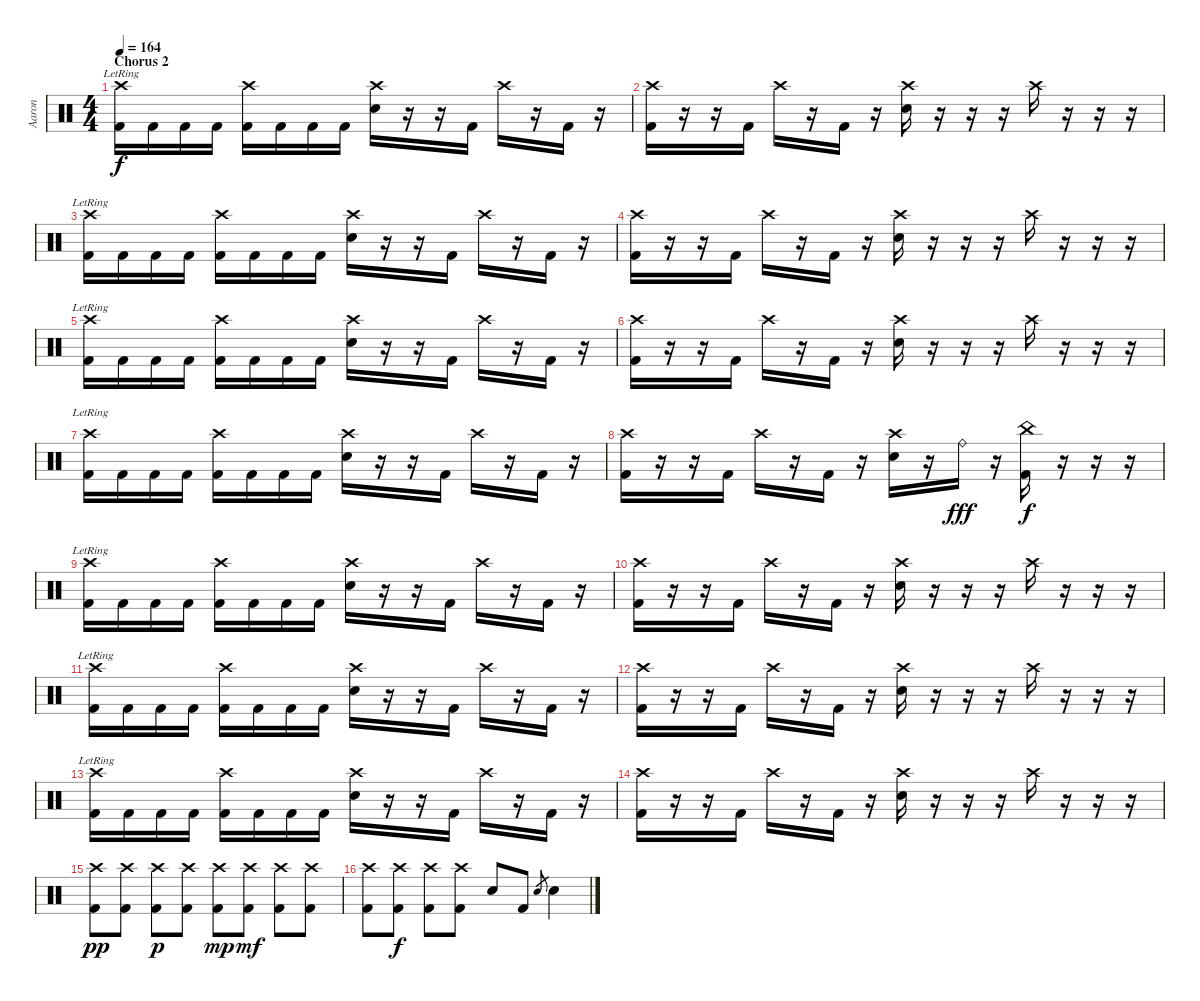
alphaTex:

\track ("Aaron" "Aaron") {instrument percussion}
\staff {score}
\articulation defaults
\ts (4 4)
\section ("" "Chorus 2")
\tempo 164
\clef neutral
\ks c
("Crash high (hit)"{lr} "Kick (hit) 2").16{dy f} "Kick (hit) 2".16 "Kick (hit) 2".16 "Kick (hit) 2".16 ("Crash high (hit)" "Kick (hit) 2").16 "Kick (hit) 2".16 "Kick (hit) 2".16 "Kick (hit) 2".16 ("Crash high (hit)" "Snare (hit) 2").16 r.16 r.16 "Kick (hit) 2".16 "Crash high (hit)".16 r.16 "Kick (hit) 2".16 r.16 |
("Crash high (hit)" "Kick (hit) 2").16 r.16 r.16 "Kick (hit) 2".16 "Crash high (hit)".16 r.16 "Kick (hit) 2".16 r.16 ("Crash high (hit)" "Snare (hit) 2").16 r.16 r.16 r.16 "Crash high (hit)".16 r.16 r.16 r.16 |
("Crash high (hit)"{lr} "Kick (hit) 2").16 "Kick (hit) 2".16 "Kick (hit) 2".16 "Kick (hit) 2".16 ("Crash high (hit)" "Kick (hit) 2").16 "Kick (hit) 2".16 "Kick (hit) 2".16 "Kick (hit) 2".16 ("Crash high (hit)" "Snare (hit) 2").16 r.16 r.16 "Kick (hit) 2".16 "Crash high (hit)".16 r.16 "Kick (hit) 2".16 r.16 |
("Crash high (hit)" "Kick (hit) 2").16 r.16 r.16 "Kick (hit) 2".16 "Crash high (hit)".16 r.16 "Kick (hit) 2".16 r.16 ("Crash high (hit)" "Snare (hit) 2").16 r.16 r.16 r.16 "Crash high (hit)".16 r.16 r.16 r.16 |
("Crash high (hit)"{lr} "Kick (hit) 2").16 "Kick (hit) 2".16 "Kick (hit) 2".16 "Kick (hit) 2".16 ("Crash high (hit)" "Kick (hit) 2").16 "Kick (hit) 2".16 "Kick (hit) 2".16 "Kick (hit) 2".16 ("Crash high (hit)" "Snare (hit) 2").16 r.16 r.16 "Kick (hit) 2".16 "Crash high (hit)".16 r.16 "Kick (hit) 2".16 r.16 |
("Crash high (hit)" "Kick (hit) 2").16 r.16 r.16 "Kick (hit) 2".16 "Crash high (hit)".16 r.16 "Kick (hit) 2".16 r.16 ("Crash high (hit)" "Snare (hit) 2").16 r.16 r.16 r.16 "Crash high (hit)".16 r.16 r.16 r.16 |
("Crash high (hit)"{lr} "Kick (hit) 2").16 "Kick (hit) 2".16 "Kick (hit) 2".16 "Kick (hit) 2".16 ("Crash high (hit)" "Kick (hit) 2").16 "Kick (hit) 2".16 "Kick (hit) 2".16 "Kick (hit) 2".16 ("Crash high (hit)" "Snare (hit) 2").16 r.16 r.16 "Kick (hit) 2".16 "Crash high (hit)".16 r.16 "Kick (hit) 2".16 r.16 |
("Crash high (hit)" "Kick (hit) 2").16 r.16 r.16 "Kick (hit) 2".16 "Crash high (hit)".16 r.16 "Kick (hit) 2".16 r.16 ("Crash high (hit)" "Snare (hit) 2").16 r.16 "Ride (bell)".16{dy fff} r.16 ("China (hit)" "Kick (hit) 2").16{dy f} r.16 r.16 r.16 |
("Crash high (hit)"{lr} "Kick (hit) 2").16 "Kick (hit) 2".16 "Kick (hit) 2".16 "Kick (hit) 2".16 ("Crash high (hit)" "Kick (hit) 2").16 "Kick (hit) 2".16 "Kick (hit) 2".16 "Kick (hit) 2".16 ("Crash high (hit)" "Snare (hit) 2").16 r.16 r.16 "Kick (hit) 2".16 "Crash high (hit)".16 r.16 "Kick (hit) 2".16 r.16 |
("Crash high (hit)" "Kick (hit) 2").16 r.16 r.16 "Kick (hit) 2".16 "Crash high (hit)".16 r.16 "Kick (hit) 2".16 r.16 ("Crash high (hit)" "Snare (hit) 2").16 r.16 r.16 r.16 "Crash high (hit)".16 r.16 r.16 r.16 |
("Crash high (hit)"{lr} "Kick (hit) 2").16 "Kick (hit) 2".16 "Kick (hit) 2".16 "Kick (hit) 2".16 ("Crash high (hit)" "Kick (hit) 2").16 "Kick (hit) 2".16 "Kick (hit) 2".16 "Kick (hit) 2".16 ("Crash high (hit)" "Snare (hit) 2").16 r.16 r.16 "Kick (hit) 2".16 "Crash high (hit)".16 r.16 "Kick (hit) 2".16 r.16 |
("Crash high (hit)" "Kick (hit) 2").16 r.16 r.16 "Kick (hit) 2".16 "Crash high (hit)".16 r.16 "Kick (hit) 2".16 r.16 ("Crash high (hit)" "Snare (hit) 2").16 r.16 r.16 r.16 "Crash high (hit)".16 r.16 r.16 r.16 |
("Crash high (hit)"{lr} "Kick (hit) 2").16 "Kick (hit) 2".16 "Kick (hit) 2".16 "Kick (hit) 2".16 ("Crash high (hit)" "Kick (hit) 2").16 "Kick (hit) 2".16 "Kick (hit) 2".16 "Kick (hit) 2".16 ("Crash high (hit)" "Snare (hit) 2").16 r.16 r.16 "Kick (hit) 2".16 "Crash high (hit)".16 r.16 "Kick (hit) 2".16 r.16 |
("Crash high (hit)" "Kick (hit) 2").16 r.16 r.16 "Kick (hit) 2".16 "Crash high (hit)".16 r.16 "Kick (hit) 2".16 r.16 ("Crash high (hit)" "Snare (hit) 2").16 r.16 r.16 r.16 "Crash high (hit)".16 r.16 r.16 r.16 |
("Crash high (hit)" "Kick (hit) 2").8{dy pp} ("Crash high (hit)" "Kick (hit) 2").8 ("Crash high (hit)" "Kick (hit) 2").8{dy p} ("Crash high (hit)" "Kick (hit) 2").8 ("Crash high (hit)" "Kick (hit) 2").8{dy mp} ("Crash high (hit)" "Kick (hit) 2").8{dy mf} ("Crash high (hit)" "Kick (hit) 2").8 ("Crash high (hit)" "Kick (hit) 2").8 |
("Crash high (hit)" "Kick (hit) 2").8 ("Crash high (hit)" "Kick (hit) 2").8{dy f} ("Crash high (hit)" "Kick (hit) 2").8 ("Crash high (hit)" "Kick (hit) 2").8 "Snare (hit) 2".8 "Kick (hit) 2".8 "Snare (hit) 2".8{gr} "Snare (hit) 2".4
